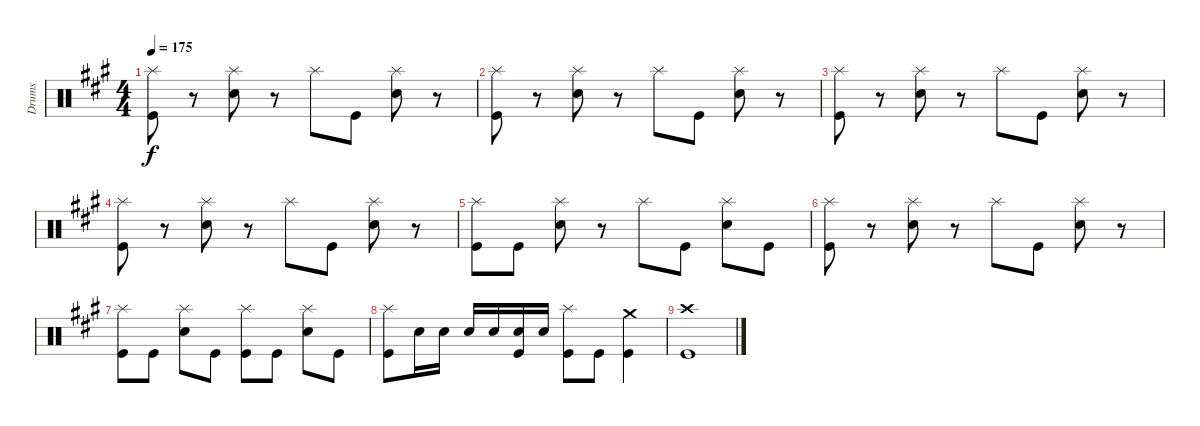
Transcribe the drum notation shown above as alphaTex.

\track ("Drums" "Drums") {instrument percussion}
\staff {score}
\articulation defaults
\ts (4 4)
\tempo 175
\clef neutral
\ks f#minor
("Splash (hit)" "Kick (hit)").8{dy f} r.8 ("Splash (hit)" "Snare (hit) 2").8 r.8 "Splash (hit)".8 "Kick (hit)".8 ("Splash (hit)" "Snare (hit) 2").8 r.8 |
("Splash (hit)" "Kick (hit)").8 r.8 ("Splash (hit)" "Snare (hit) 2").8 r.8 "Splash (hit)".8 "Kick (hit)".8 ("Splash (hit)" "Snare (hit) 2").8 r.8 |
("Splash (hit)" "Kick (hit)").8 r.8 ("Splash (hit)" "Snare (hit) 2").8 r.8 "Splash (hit)".8 "Kick (hit)".8 ("Splash (hit)" "Snare (hit) 2").8 r.8 |
("Splash (hit)" "Kick (hit)").8 r.8 ("Splash (hit)" "Snare (hit) 2").8 r.8 "Splash (hit)".8 "Kick (hit)".8 ("Splash (hit)" "Snare (hit) 2").8 r.8 |
("Splash (hit)" "Kick (hit)").8 "Kick (hit)".8 ("Splash (hit)" "Snare (hit) 2").8 r.8 "Splash (hit)".8 "Kick (hit)".8 ("Splash (hit)" "Snare (hit) 2").8 "Kick (hit)".8 |
("Splash (hit)" "Kick (hit)").8 r.8 ("Splash (hit)" "Snare (hit) 2").8 r.8 "Splash (hit)".8 "Kick (hit)".8 ("Splash (hit)" "Snare (hit) 2").8 r.8 |
("Splash (hit)" "Kick (hit)").8 "Kick (hit)".8 ("Splash (hit)" "Snare (hit) 2").8 "Kick (hit)".8 ("Splash (hit)" "Kick (hit)").8 "Kick (hit)".8 ("Splash (hit)" "Snare (hit) 2").8 "Kick (hit)".8 |
("Splash (hit)" "Kick (hit)").8 "Snare (hit) 2".16 "Snare (hit) 2".16 "Snare (hit) 2".16 "Snare (hit) 2".16 ("Snare (hit) 2" "Kick (hit)").16 "Snare (hit) 2".16 ("Splash (hit)" "Kick (hit)").8 "Kick (hit)".8 ("Crash medium (hit)" "Kick (hit)").4 |
("Crash high (hit)" "Kick (hit)").1
